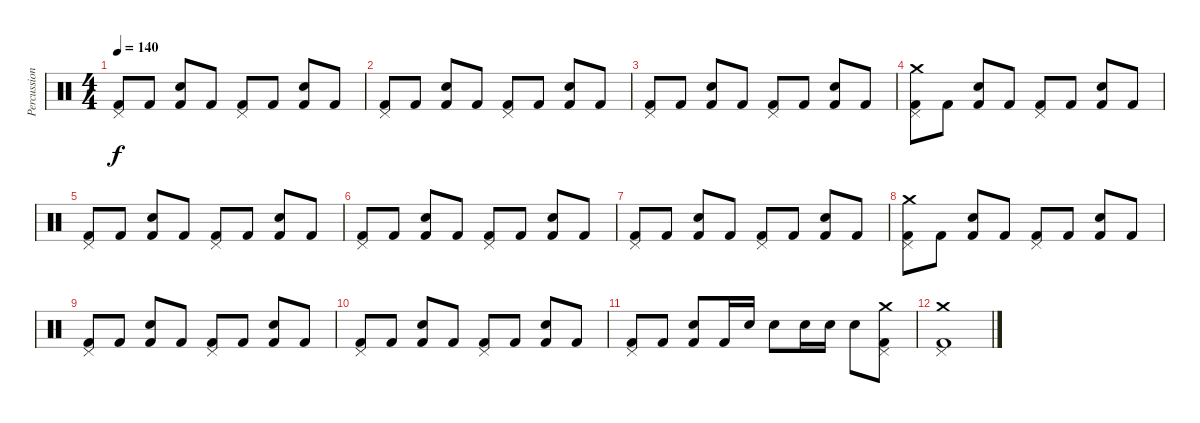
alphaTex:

\track ("Percussion" "Percussion") {instrument percussion}
\staff {score}
\articulation defaults
\ts (4 4)
\tempo 140
\clef neutral
\ks c
("Kick (hit) 2" "Pedal Hi-Hat (hit)").8{dy f} "Kick (hit) 2".8 ("Kick (hit) 2" "Electric Snare (hit)").8 "Kick (hit) 2".8 ("Kick (hit) 2" "Pedal Hi-Hat (hit)").8 "Kick (hit) 2".8 ("Kick (hit) 2" "Electric Snare (hit)").8 "Kick (hit) 2".8 |
("Kick (hit) 2" "Pedal Hi-Hat (hit)").8 "Kick (hit) 2".8 ("Kick (hit) 2" "Electric Snare (hit)").8 "Kick (hit) 2".8 ("Kick (hit) 2" "Pedal Hi-Hat (hit)").8 "Kick (hit) 2".8 ("Kick (hit) 2" "Electric Snare (hit)").8 "Kick (hit) 2".8 |
("Kick (hit) 2" "Pedal Hi-Hat (hit)").8 "Kick (hit) 2".8 ("Kick (hit) 2" "Electric Snare (hit)").8 "Kick (hit) 2".8 ("Kick (hit) 2" "Pedal Hi-Hat (hit)").8 "Kick (hit) 2".8 ("Kick (hit) 2" "Electric Snare (hit)").8 "Kick (hit) 2".8 |
("Kick (hit) 2" "Pedal Hi-Hat (hit)" "Crash medium (hit)").8 "Kick (hit) 2".8 ("Kick (hit) 2" "Electric Snare (hit)").8 "Kick (hit) 2".8 ("Kick (hit) 2" "Pedal Hi-Hat (hit)").8 "Kick (hit) 2".8 ("Kick (hit) 2" "Electric Snare (hit)").8 "Kick (hit) 2".8 |
("Kick (hit) 2" "Pedal Hi-Hat (hit)").8 "Kick (hit) 2".8 ("Kick (hit) 2" "Electric Snare (hit)").8 "Kick (hit) 2".8 ("Kick (hit) 2" "Pedal Hi-Hat (hit)").8 "Kick (hit) 2".8 ("Kick (hit) 2" "Electric Snare (hit)").8 "Kick (hit) 2".8 |
("Kick (hit) 2" "Pedal Hi-Hat (hit)").8 "Kick (hit) 2".8 ("Kick (hit) 2" "Electric Snare (hit)").8 "Kick (hit) 2".8 ("Kick (hit) 2" "Pedal Hi-Hat (hit)").8 "Kick (hit) 2".8 ("Kick (hit) 2" "Electric Snare (hit)").8 "Kick (hit) 2".8 |
("Kick (hit) 2" "Pedal Hi-Hat (hit)").8 "Kick (hit) 2".8 ("Kick (hit) 2" "Electric Snare (hit)").8 "Kick (hit) 2".8 ("Kick (hit) 2" "Pedal Hi-Hat (hit)").8 "Kick (hit) 2".8 ("Kick (hit) 2" "Electric Snare (hit)").8 "Kick (hit) 2".8 |
("Kick (hit) 2" "Pedal Hi-Hat (hit)" "Crash medium (hit)").8 "Kick (hit) 2".8 ("Kick (hit) 2" "Electric Snare (hit)").8 "Kick (hit) 2".8 ("Kick (hit) 2" "Pedal Hi-Hat (hit)").8 "Kick (hit) 2".8 ("Kick (hit) 2" "Electric Snare (hit)").8 "Kick (hit) 2".8 |
("Kick (hit) 2" "Pedal Hi-Hat (hit)").8 "Kick (hit) 2".8 ("Kick (hit) 2" "Electric Snare (hit)").8 "Kick (hit) 2".8 ("Kick (hit) 2" "Pedal Hi-Hat (hit)").8 "Kick (hit) 2".8 ("Kick (hit) 2" "Electric Snare (hit)").8 "Kick (hit) 2".8 |
("Kick (hit) 2" "Pedal Hi-Hat (hit)").8 "Kick (hit) 2".8 ("Kick (hit) 2" "Electric Snare (hit)").8 "Kick (hit) 2".8 ("Kick (hit) 2" "Pedal Hi-Hat (hit)").8 "Kick (hit) 2".8 ("Kick (hit) 2" "Electric Snare (hit)").8 "Kick (hit) 2".8 |
("Kick (hit) 2" "Pedal Hi-Hat (hit)").8 "Kick (hit) 2".8 ("Kick (hit) 2" "Electric Snare (hit)").8 "Kick (hit) 2".16 "Electric Snare (hit)".16 "Electric Snare (hit)".8 "Electric Snare (hit)".16 "Electric Snare (hit)".16 "Electric Snare (hit)".8 ("Kick (hit) 2" "Pedal Hi-Hat (hit)" "Crash medium (hit)").8 |
("Crash medium (hit)" "Pedal Hi-Hat (hit)" "Kick (hit) 2").1
